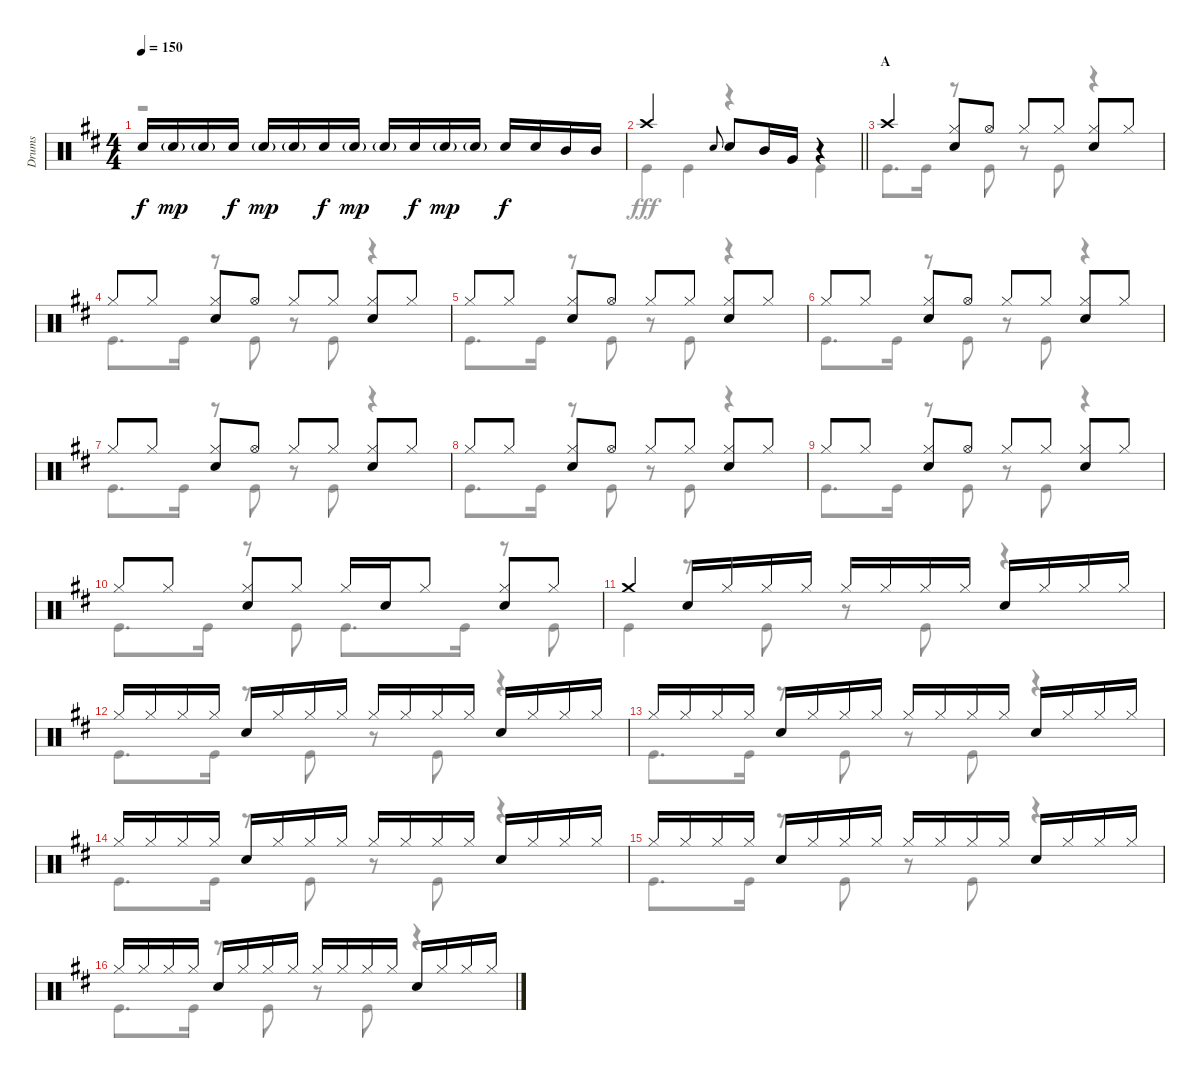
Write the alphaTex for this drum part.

\track ("Drums" "Drums") {instrument percussion}
\staff {score}
\articulation defaults
\voice
\ts (4 4)
\tempo 150
\clef neutral
\ks d "Snare (hit) 2".16{dy f} "Snare (hit) 2"{g}.16{dy mp} "Snare (hit) 2"{g}.16 "Snare (hit) 2".16{dy f} "Snare (hit) 2"{g}.16{dy mp} "Snare (hit) 2"{g}.16 "Snare (hit) 2".16{dy f} "Snare (hit) 2"{g}.16{dy mp} "Snare (hit) 2"{g}.16 "Snare (hit) 2".16{dy f} "Snare (hit) 2"{g}.16{dy mp} "Snare (hit) 2"{g}.16 "Snare (hit) 2".16{dy f} "Snare (hit) 2".16 "Mid Tom (hit)".16 "Mid Tom (hit)".16
|
\barLineRight lightlight "Crash high (hit)".2 "Snare (hit) 2".8{gr onbeat} "Snare (hit) 2".8 "Mid Tom (hit)".16 "Very Low Tom (hit)".16
r.4 |
\section ("" "A")
"Crash high (hit)".4 ("Hi-Hat (closed)" "Snare (hit) 2").8 "Hi-Hat (open)".8 "Hi-Hat (closed)".8 "Hi-Hat (closed)".8 ("Hi-Hat (closed)" "Snare (hit) 2").8 "Hi-Hat (closed)".8 |
"Hi-Hat (closed)".8 "Hi-Hat (closed)".8 ("Hi-Hat (closed)" "Snare (hit) 2").8 "Hi-Hat (open)".8 "Hi-Hat (closed)".8 "Hi-Hat (closed)".8 ("Hi-Hat (closed)" "Snare (hit) 2").8 "Hi-Hat (closed)".8 |
"Hi-Hat (closed)".8 "Hi-Hat (closed)".8 ("Hi-Hat (closed)" "Snare (hit) 2").8 "Hi-Hat (open)".8 "Hi-Hat (closed)".8 "Hi-Hat (closed)".8 ("Hi-Hat (closed)" "Snare (hit) 2").8 "Hi-Hat (closed)".8 |
"Hi-Hat (closed)".8 "Hi-Hat (closed)".8 ("Hi-Hat (closed)" "Snare (hit) 2").8 "Hi-Hat (open)".8 "Hi-Hat (closed)".8 "Hi-Hat (closed)".8 ("Hi-Hat (closed)" "Snare (hit) 2").8 "Hi-Hat (closed)".8 |
"Hi-Hat (closed)".8 "Hi-Hat (closed)".8 ("Hi-Hat (closed)" "Snare (hit) 2").8 "Hi-Hat (open)".8 "Hi-Hat (closed)".8 "Hi-Hat (closed)".8 ("Hi-Hat (closed)" "Snare (hit) 2").8 "Hi-Hat (closed)".8 |
"Hi-Hat (closed)".8 "Hi-Hat (closed)".8 ("Hi-Hat (closed)" "Snare (hit) 2").8 "Hi-Hat (open)".8 "Hi-Hat (closed)".8 "Hi-Hat (closed)".8 ("Hi-Hat (closed)" "Snare (hit) 2").8 "Hi-Hat (closed)".8 |
"Hi-Hat (closed)".8 "Hi-Hat (closed)".8 ("Hi-Hat (closed)" "Snare (hit) 2").8 "Hi-Hat (open)".8 "Hi-Hat (closed)".8 "Hi-Hat (closed)".8 ("Hi-Hat (closed)" "Snare (hit) 2").8 "Hi-Hat (closed)".8 |
"Hi-Hat (closed)".8 "Hi-Hat (closed)".8 ("Hi-Hat (closed)" "Snare (hit) 2").8 "Hi-Hat (closed)".8 "Hi-Hat (closed)".16 "Snare (hit) 2".16 "Hi-Hat (closed)".8 ("Hi-Hat (closed)" "Snare (hit) 2").8 "Hi-Hat (closed)".8 |
"Crash medium (hit)".4 "Snare (hit) 2".16 "Hi-Hat (closed)".16 "Hi-Hat (closed)".16 "Hi-Hat (closed)".16 "Hi-Hat (closed)".16 "Hi-Hat (closed)".16 "Hi-Hat (closed)".16 "Hi-Hat (closed)".16 "Snare (hit) 2".16 "Hi-Hat (closed)".16 "Hi-Hat (closed)".16 "Hi-Hat (closed)".16 |
"Hi-Hat (closed)".16 "Hi-Hat (closed)".16 "Hi-Hat (closed)".16 "Hi-Hat (closed)".16 "Snare (hit) 2".16 "Hi-Hat (closed)".16 "Hi-Hat (closed)".16 "Hi-Hat (closed)".16 "Hi-Hat (closed)".16 "Hi-Hat (closed)".16 "Hi-Hat (closed)".16 "Hi-Hat (closed)".16 "Snare (hit) 2".16 "Hi-Hat (closed)".16 "Hi-Hat (closed)".16 "Hi-Hat (closed)".16 |
"Hi-Hat (closed)".16 "Hi-Hat (closed)".16 "Hi-Hat (closed)".16 "Hi-Hat (closed)".16 "Snare (hit) 2".16 "Hi-Hat (closed)".16 "Hi-Hat (closed)".16 "Hi-Hat (closed)".16 "Hi-Hat (closed)".16 "Hi-Hat (closed)".16 "Hi-Hat (closed)".16 "Hi-Hat (closed)".16 "Snare (hit) 2".16 "Hi-Hat (closed)".16 "Hi-Hat (closed)".16 "Hi-Hat (closed)".16 |
"Hi-Hat (closed)".16 "Hi-Hat (closed)".16 "Hi-Hat (closed)".16 "Hi-Hat (closed)".16 "Snare (hit) 2".16 "Hi-Hat (closed)".16 "Hi-Hat (closed)".16 "Hi-Hat (closed)".16 "Hi-Hat (closed)".16 "Hi-Hat (closed)".16 "Hi-Hat (closed)".16 "Hi-Hat (closed)".16 "Snare (hit) 2".16 "Hi-Hat (closed)".16 "Hi-Hat (closed)".16 "Hi-Hat (closed)".16 |
"Hi-Hat (closed)".16 "Hi-Hat (closed)".16 "Hi-Hat (closed)".16 "Hi-Hat (closed)".16 "Snare (hit) 2".16 "Hi-Hat (closed)".16 "Hi-Hat (closed)".16 "Hi-Hat (closed)".16 "Hi-Hat (closed)".16 "Hi-Hat (closed)".16 "Hi-Hat (closed)".16 "Hi-Hat (closed)".16 "Snare (hit) 2".16 "Hi-Hat (closed)".16 "Hi-Hat (closed)".16 "Hi-Hat (closed)".16 |
"Hi-Hat (closed)".16 "Hi-Hat (closed)".16 "Hi-Hat (closed)".16 "Hi-Hat (closed)".16 "Snare (hit) 2".16 "Hi-Hat (closed)".16 "Hi-Hat (closed)".16 "Hi-Hat (closed)".16 "Hi-Hat (closed)".16 "Hi-Hat (closed)".16 "Hi-Hat (closed)".16 "Hi-Hat (closed)".16 "Snare (hit) 2".16 "Hi-Hat (closed)".16 "Hi-Hat (closed)".16 "Hi-Hat (closed)".16
\voice
\clef neutral
\ottava regular
\simile none
\ks d
r.1{dy fff} |
\barLineRight lightlight "Kick (hit)".4 "Kick (hit)".4
r.4 "Kick (hit)".4 |
"Kick (hit)".8{d} "Kick (hit)".16 r.8 "Kick (hit)".8 r.8 "Kick (hit)".8 r.4 |
"Kick (hit)".8{d} "Kick (hit)".16 r.8 "Kick (hit)".8 r.8 "Kick (hit)".8 r.4 |
"Kick (hit)".8{d} "Kick (hit)".16 r.8 "Kick (hit)".8 r.8 "Kick (hit)".8 r.4 |
"Kick (hit)".8{d} "Kick (hit)".16 r.8 "Kick (hit)".8 r.8 "Kick (hit)".8 r.4 |
"Kick (hit)".8{d} "Kick (hit)".16 r.8 "Kick (hit)".8 r.8 "Kick (hit)".8 r.4 |
"Kick (hit)".8{d} "Kick (hit)".16 r.8 "Kick (hit)".8 r.8 "Kick (hit)".8 r.4 |
"Kick (hit)".8{d} "Kick (hit)".16 r.8 "Kick (hit)".8 r.8 "Kick (hit)".8 r.4 |
"Kick (hit)".8{d} "Kick (hit)".16 r.8 "Kick (hit)".8 "Kick (hit)".8{d} "Kick (hit)".16 r.8 "Kick (hit)".8 |
"Kick (hit)".4 r.8 "Kick (hit)".8 r.8 "Kick (hit)".8 r.4 |
"Kick (hit)".8{d} "Kick (hit)".16 r.8 "Kick (hit)".8 r.8 "Kick (hit)".8 r.4 |
"Kick (hit)".8{d} "Kick (hit)".16 r.8 "Kick (hit)".8 r.8 "Kick (hit)".8 r.4 |
"Kick (hit)".8{d} "Kick (hit)".16 r.8 "Kick (hit)".8 r.8 "Kick (hit)".8 r.4 |
"Kick (hit)".8{d} "Kick (hit)".16 r.8 "Kick (hit)".8 r.8 "Kick (hit)".8 r.4 |
"Kick (hit)".8{d} "Kick (hit)".16 r.8 "Kick (hit)".8 r.8 "Kick (hit)".8 r.4
